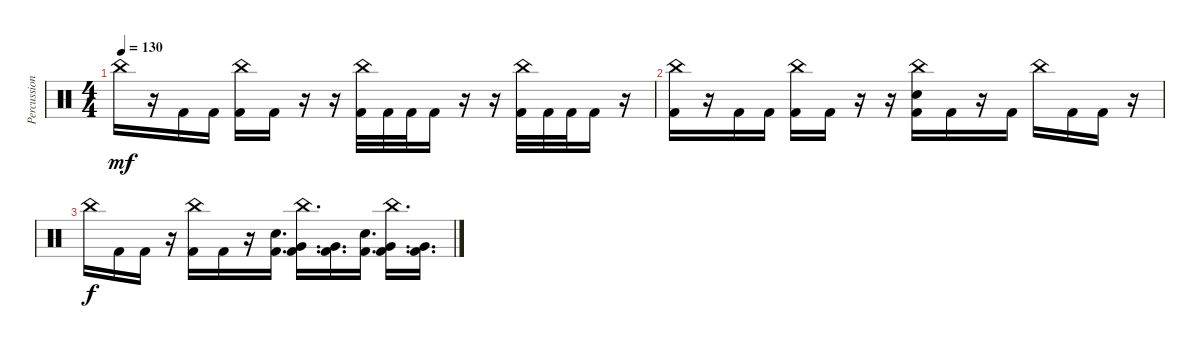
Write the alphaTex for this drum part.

\track ("Percussions" "Percussion") {instrument percussion}
\staff {score}
\articulation defaults
\ts (4 4)
\tempo 130
\clef neutral
\ks c "China (hit)".16{dy mf}
r.16 "Kick (hit) 2".16 "Kick (hit) 2".16 ("China (hit)" "Kick (hit) 2").16 "Kick (hit) 2".16 r.16 r.16 ("China (hit)" "Kick (hit) 2").32 "Kick (hit) 2".32 "Kick (hit) 2".32 "Kick (hit) 2".16 r.16 r.16 ("China (hit)" "Kick (hit) 2").32 "Kick (hit) 2".32 "Kick (hit) 2".32 "Kick (hit) 2".16 r.16 |
("China (hit)" "Kick (hit) 2").16 r.16 "Kick (hit) 2".16 "Kick (hit) 2".16 ("China (hit)" "Kick (hit) 2").16 "Kick (hit) 2".16 r.16 r.16 ("China (hit)" "Electric Snare (hit)" "Kick (hit) 2").16 "Kick (hit) 2".16 r.16 "Kick (hit) 2".16 "China (hit)".16 "Kick (hit) 2".16 "Kick (hit) 2".16 r.16 |
"China (hit)".16{dy f} "Kick (hit) 2".16 "Kick (hit) 2".16 r.16 ("China (hit)" "Kick (hit) 2").16 "Kick (hit) 2".16 r.16 ("Electric Snare (hit)" "Kick (hit) 2").16{d} ("China (hit)" "Very Low Tom (hit)" "Kick (hit) 2").16{d} ("Very Low Tom (hit)" "Kick (hit) 2").16{d} ("Electric Snare (hit)" "Kick (hit) 2").16{d} ("China (hit)" "Very Low Tom (hit)" "Kick (hit) 2").16{d} ("Very Low Tom (hit)" "Kick (hit) 2").16{d}
